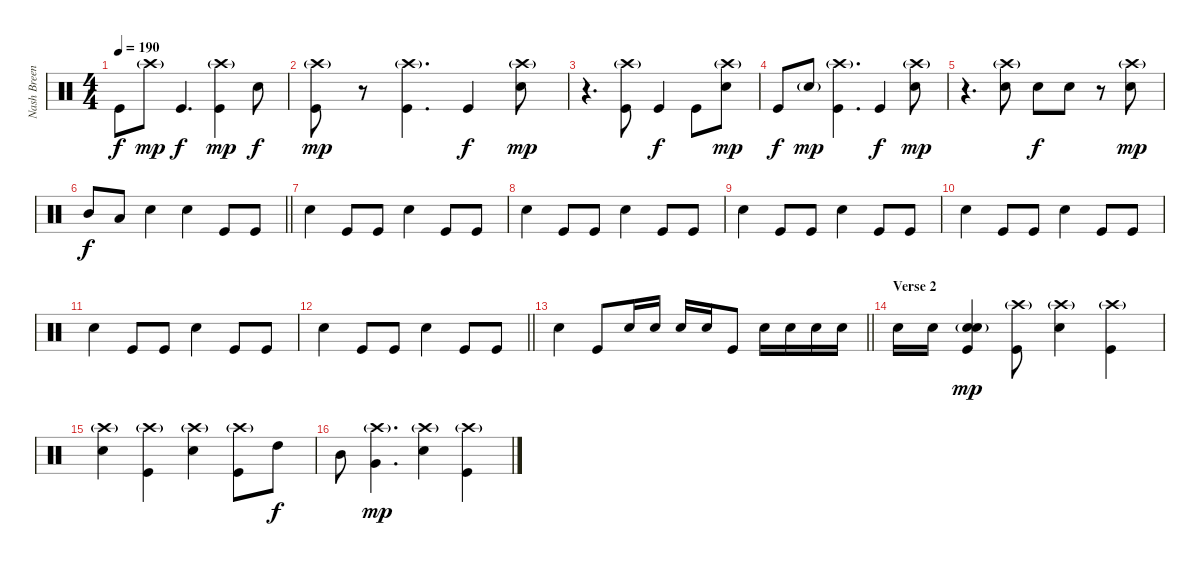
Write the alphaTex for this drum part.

\track ("Nash Breen (Percussion)" "Nash Breen") {instrument percussion}
\staff {score}
\articulation defaults
\ts (4 4)
\tempo 190
\clef neutral
\ks c "Kick (hit)".8{dy f} "Crash high (hit)"{g}.8{dy mp} "Kick (hit)".4{d dy f}
("Kick (hit)" "Crash high (hit)"{g}).4{dy mp} "Electric Snare (hit)".8{dy f} |
("Kick (hit)" "Crash high (hit)"{g}).8{dy mp} r.8 ("Kick (hit)" "Crash high (hit)"{g}).4{d} "Kick (hit)".4{dy f} ("Electric Snare (hit)" "Crash high (hit)"{g}).8{dy mp} |
r.4{d} ("Kick (hit)" "Crash high (hit)"{g}).8 "Kick (hit)".4{dy f} "Kick (hit)".8 ("Electric Snare (hit)" "Crash high (hit)"{g}).8{dy mp} |
"Kick (hit)".8{dy f} "Electric Snare (hit)"{g}.8{dy mp} ("Kick (hit)" "Crash high (hit)"{g}).4{d} "Kick (hit)".4{dy f} ("Electric Snare (hit)" "Crash high (hit)"{g}).8{dy mp} |
r.4{d} ("Electric Snare (hit)" "Crash high (hit)"{g}).8 "Electric Snare (hit)".8{dy f} "Electric Snare (hit)".8 r.8 ("Electric Snare (hit)" "Crash high (hit)"{g}).8{dy mp} |
\barLineRight lightlight "Mid Tom (hit)".8{dy f} "Low Tom (hit)".8 "Electric Snare (hit)".4 "Snare (hit) 2".4 "Kick (hit)".8 "Kick (hit)".8
|
\section ("" "")
"Snare (hit) 2".4 "Kick (hit)".8 "Kick (hit)".8 "Snare (hit) 2".4 "Kick (hit)".8 "Kick (hit)".8 |
"Snare (hit) 2".4 "Kick (hit)".8 "Kick (hit)".8 "Snare (hit) 2".4 "Kick (hit)".8 "Kick (hit)".8 |
"Snare (hit) 2".4 "Kick (hit)".8 "Kick (hit)".8 "Snare (hit) 2".4 "Kick (hit)".8 "Kick (hit)".8 |
"Snare (hit) 2".4 "Kick (hit)".8 "Kick (hit)".8 "Snare (hit) 2".4 "Kick (hit)".8 "Kick (hit)".8 |
"Snare (hit) 2".4 "Kick (hit)".8 "Kick (hit)".8 "Snare (hit) 2".4 "Kick (hit)".8 "Kick (hit)".8 |
\barLineRight lightlight "Snare (hit) 2".4 "Kick (hit)".8 "Kick (hit)".8 "Snare (hit) 2".4 "Kick (hit)".8 "Kick (hit)".8
|
\section ("" "")
\barLineRight lightlight "Snare (hit) 2".4 "Kick (hit)".8 "Electric Snare (hit)".16 "Electric Snare (hit)".16 "Electric Snare (hit)".16 "Electric Snare (hit)".16 "Kick (hit)".8 "Electric Snare (hit)".16 "Electric Snare (hit)".16 "Electric Snare (hit)".16 "Electric Snare (hit)".16
|
\section ("" "Verse 2")
"Electric Snare (hit)".16 "Electric Snare (hit)".16 ("Electric Snare (hit)"{g} "Kick (hit)" "Electric Snare (hit)").4{dy mp} ("Kick (hit)" "Crash high (hit)"{g}).8 ("Electric Snare (hit)" "Crash high (hit)"{g}).4 ("Kick (hit)" "Crash high (hit)"{g}).4 |
("Electric Snare (hit)" "Crash high (hit)"{g}).4 ("Kick (hit)" "Crash high (hit)"{g}).4 ("Electric Snare (hit)" "Crash high (hit)"{g}).4 ("Kick (hit)" "Crash high (hit)"{g}).8 "High Tom (hit)".8{dy f} |
"Mid Tom (hit)".8 ("Very Low Tom (hit)" "Crash high (hit)"{g}).4{d dy mp} ("Electric Snare (hit)" "Crash high (hit)"{g}).4 ("Kick (hit)" "Crash high (hit)"{g}).4
